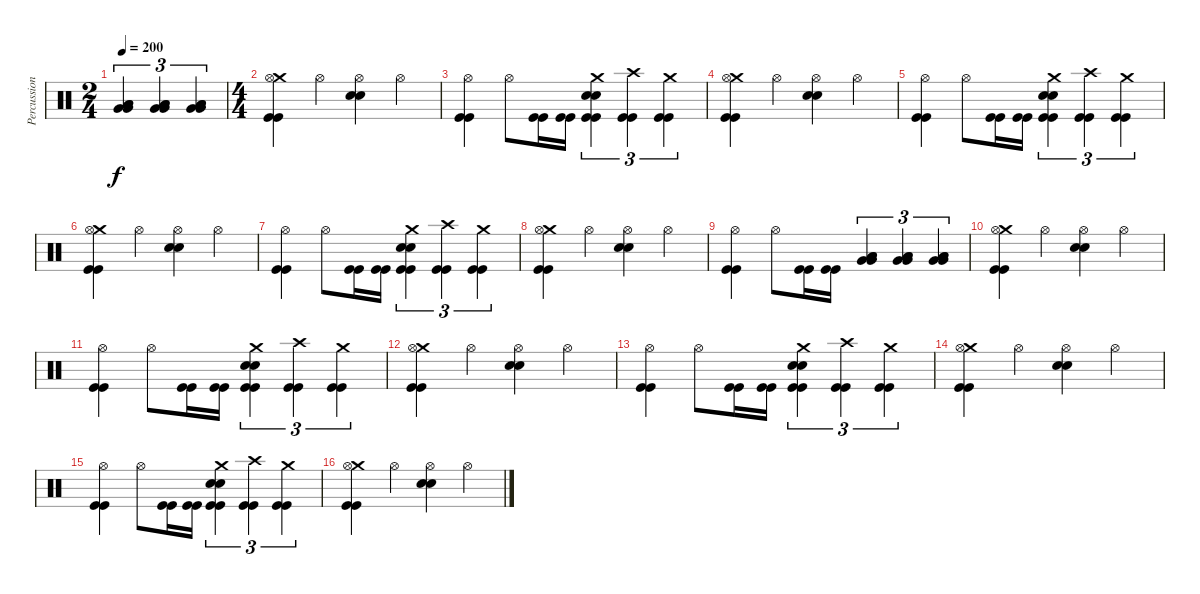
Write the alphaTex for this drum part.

\track ("Percussion" "Percussion") {instrument percussion}
\staff {score}
\articulation defaults
\ts (2 4)
\tempo 200
\clef neutral
\ks c
("Low Floor Tom (hit)" "Low Floor Tom (hit)" "Very Low Tom (hit)" "Very Low Tom (hit)").4{tu (3 2) dy f} ("Low Floor Tom (hit)" "Low Floor Tom (hit)" "Very Low Tom (hit)" "Very Low Tom (hit)").4{tu (3 2)} ("Low Floor Tom (hit)" "Low Floor Tom (hit)" "Very Low Tom (hit)" "Very Low Tom (hit)").4{tu (3 2)} |
\ts (4 4)
("Crash medium (hit)" "Hi-Hat (open)" "Kick (hit)" "Kick (hit)").4 "Hi-Hat (open)".4 ("Snare (hit) 2" "Snare (hit) 2" "Hi-Hat (open)").4 "Hi-Hat (open)".4 |
("Hi-Hat (open)" "Kick (hit)" "Kick (hit)").4 "Hi-Hat (open)".8 ("Kick (hit)" "Kick (hit)").16 ("Kick (hit)" "Kick (hit)").16 ("Crash medium (hit)" "Snare (hit) 2" "Snare (hit) 2" "Kick (hit)" "Kick (hit)").4{tu (3 2)} ("Crash high (hit)" "Kick (hit)" "Kick (hit)").4{tu (3 2)} ("Crash medium (hit)" "Kick (hit)" "Kick (hit)").4{tu (3 2)} |
("Crash medium (hit)" "Hi-Hat (open)" "Kick (hit)" "Kick (hit)").4 "Hi-Hat (open)".4 ("Snare (hit) 2" "Snare (hit) 2" "Hi-Hat (open)").4 "Hi-Hat (open)".4 |
("Hi-Hat (open)" "Kick (hit)" "Kick (hit)").4 "Hi-Hat (open)".8 ("Kick (hit)" "Kick (hit)").16 ("Kick (hit)" "Kick (hit)").16 ("Crash medium (hit)" "Snare (hit) 2" "Snare (hit) 2" "Kick (hit)" "Kick (hit)").4{tu (3 2)} ("Crash high (hit)" "Kick (hit)" "Kick (hit)").4{tu (3 2)} ("Crash medium (hit)" "Kick (hit)" "Kick (hit)").4{tu (3 2)} |
("Crash medium (hit)" "Hi-Hat (open)" "Kick (hit)" "Kick (hit)").4 "Hi-Hat (open)".4 ("Snare (hit) 2" "Snare (hit) 2" "Hi-Hat (open)").4 "Hi-Hat (open)".4 |
("Hi-Hat (open)" "Kick (hit)" "Kick (hit)").4 "Hi-Hat (open)".8 ("Kick (hit)" "Kick (hit)").16 ("Kick (hit)" "Kick (hit)").16 ("Crash medium (hit)" "Snare (hit) 2" "Snare (hit) 2" "Kick (hit)" "Kick (hit)").4{tu (3 2)} ("Crash high (hit)" "Kick (hit)" "Kick (hit)").4{tu (3 2)} ("Crash medium (hit)" "Kick (hit)" "Kick (hit)").4{tu (3 2)} |
("Crash medium (hit)" "Hi-Hat (open)" "Kick (hit)" "Kick (hit)").4 "Hi-Hat (open)".4 ("Snare (hit) 2" "Snare (hit) 2" "Hi-Hat (open)").4 "Hi-Hat (open)".4 |
("Hi-Hat (open)" "Kick (hit)" "Kick (hit)").4 "Hi-Hat (open)".8 ("Kick (hit)" "Kick (hit)").16 ("Kick (hit)" "Kick (hit)").16 ("Very Low Tom (hit)" "Very Low Tom (hit)" "Low Floor Tom (hit)" "Low Floor Tom (hit)").4{tu (3 2)} ("Very Low Tom (hit)" "Very Low Tom (hit)" "Low Floor Tom (hit)" "Low Floor Tom (hit)").4{tu (3 2)} ("Very Low Tom (hit)" "Very Low Tom (hit)" "Low Floor Tom (hit)" "Low Floor Tom (hit)").4{tu (3 2)} |
("Crash medium (hit)" "Hi-Hat (open)" "Kick (hit)" "Kick (hit)").4 "Hi-Hat (open)".4 ("Snare (hit) 2" "Snare (hit) 2" "Hi-Hat (open)").4 "Hi-Hat (open)".4 |
("Hi-Hat (open)" "Kick (hit)" "Kick (hit)").4 "Hi-Hat (open)".8 ("Kick (hit)" "Kick (hit)").16 ("Kick (hit)" "Kick (hit)").16 ("Crash medium (hit)" "Snare (hit) 2" "Snare (hit) 2" "Kick (hit)" "Kick (hit)").4{tu (3 2)} ("Crash high (hit)" "Kick (hit)" "Kick (hit)").4{tu (3 2)} ("Crash medium (hit)" "Kick (hit)" "Kick (hit)").4{tu (3 2)} |
("Crash medium (hit)" "Hi-Hat (open)" "Kick (hit)" "Kick (hit)").4 "Hi-Hat (open)".4 ("Snare (hit) 2" "Snare (hit) 2" "Hi-Hat (open)").4 "Hi-Hat (open)".4 |
("Hi-Hat (open)" "Kick (hit)" "Kick (hit)").4 "Hi-Hat (open)".8 ("Kick (hit)" "Kick (hit)").16 ("Kick (hit)" "Kick (hit)").16 ("Crash medium (hit)" "Snare (hit) 2" "Snare (hit) 2" "Kick (hit)" "Kick (hit)").4{tu (3 2)} ("Crash high (hit)" "Kick (hit)" "Kick (hit)").4{tu (3 2)} ("Crash medium (hit)" "Kick (hit)" "Kick (hit)").4{tu (3 2)} |
("Crash medium (hit)" "Hi-Hat (open)" "Kick (hit)" "Kick (hit)").4 "Hi-Hat (open)".4 ("Snare (hit) 2" "Snare (hit) 2" "Hi-Hat (open)").4 "Hi-Hat (open)".4 |
("Hi-Hat (open)" "Kick (hit)" "Kick (hit)").4 "Hi-Hat (open)".8 ("Kick (hit)" "Kick (hit)").16 ("Kick (hit)" "Kick (hit)").16 ("Crash medium (hit)" "Snare (hit) 2" "Snare (hit) 2" "Kick (hit)" "Kick (hit)").4{tu (3 2)} ("Crash high (hit)" "Kick (hit)" "Kick (hit)").4{tu (3 2)} ("Crash medium (hit)" "Kick (hit)" "Kick (hit)").4{tu (3 2)} |
("Crash medium (hit)" "Hi-Hat (open)" "Kick (hit)" "Kick (hit)").4 "Hi-Hat (open)".4 ("Snare (hit) 2" "Snare (hit) 2" "Hi-Hat (open)").4 "Hi-Hat (open)".4
